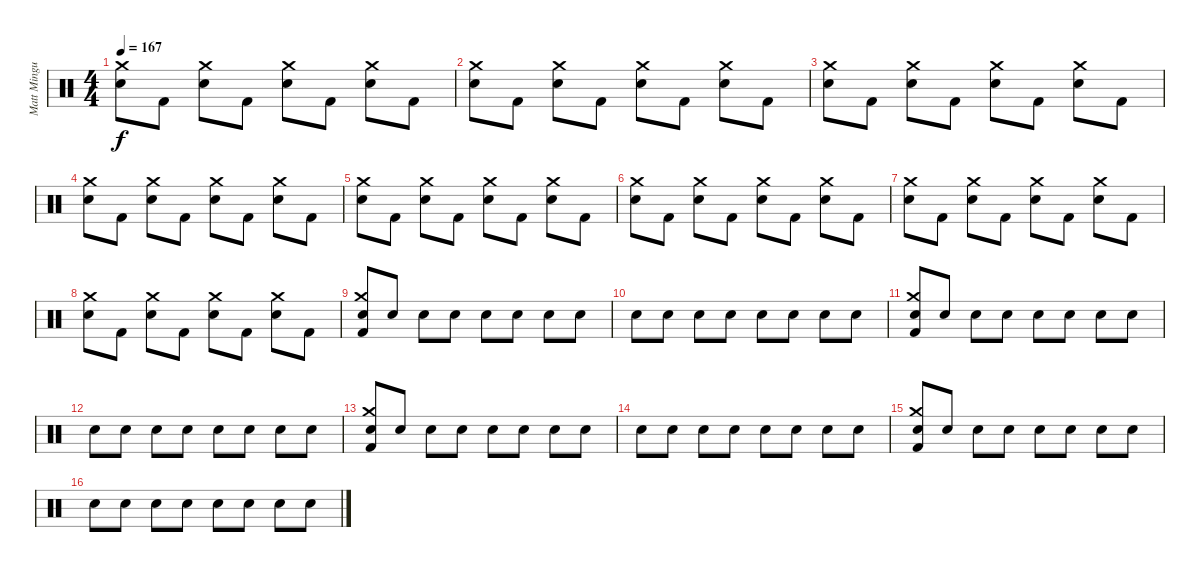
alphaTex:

\track ("Matt Mingus" "Matt Mingu") {instrument percussion}
\staff {score}
\articulation defaults
\ts (4 4)
\tempo 167
\clef neutral
\ks c
("Electric Snare (hit)" "Crash medium (hit)").8{dy f} "Kick (hit) 2".8 ("Electric Snare (hit)" "Crash medium (hit)").8 "Kick (hit) 2".8 ("Electric Snare (hit)" "Crash medium (hit)").8 "Kick (hit) 2".8 ("Electric Snare (hit)" "Crash medium (hit)").8 "Kick (hit) 2".8 |
("Electric Snare (hit)" "Crash medium (hit)").8 "Kick (hit) 2".8 ("Electric Snare (hit)" "Crash medium (hit)").8 "Kick (hit) 2".8 ("Electric Snare (hit)" "Crash medium (hit)").8 "Kick (hit) 2".8 ("Electric Snare (hit)" "Crash medium (hit)").8 "Kick (hit) 2".8 |
("Electric Snare (hit)" "Crash medium (hit)").8 "Kick (hit) 2".8 ("Electric Snare (hit)" "Crash medium (hit)").8 "Kick (hit) 2".8 ("Electric Snare (hit)" "Crash medium (hit)").8 "Kick (hit) 2".8 ("Electric Snare (hit)" "Crash medium (hit)").8 "Kick (hit) 2".8 |
("Electric Snare (hit)" "Crash medium (hit)").8 "Kick (hit) 2".8 ("Electric Snare (hit)" "Crash medium (hit)").8 "Kick (hit) 2".8 ("Electric Snare (hit)" "Crash medium (hit)").8 "Kick (hit) 2".8 ("Electric Snare (hit)" "Crash medium (hit)").8 "Kick (hit) 2".8 |
("Electric Snare (hit)" "Crash medium (hit)").8 "Kick (hit) 2".8 ("Electric Snare (hit)" "Crash medium (hit)").8 "Kick (hit) 2".8 ("Electric Snare (hit)" "Crash medium (hit)").8 "Kick (hit) 2".8 ("Electric Snare (hit)" "Crash medium (hit)").8 "Kick (hit) 2".8 |
("Electric Snare (hit)" "Crash medium (hit)").8 "Kick (hit) 2".8 ("Electric Snare (hit)" "Crash medium (hit)").8 "Kick (hit) 2".8 ("Electric Snare (hit)" "Crash medium (hit)").8 "Kick (hit) 2".8 ("Electric Snare (hit)" "Crash medium (hit)").8 "Kick (hit) 2".8 |
("Electric Snare (hit)" "Crash medium (hit)").8 "Kick (hit) 2".8 ("Electric Snare (hit)" "Crash medium (hit)").8 "Kick (hit) 2".8 ("Electric Snare (hit)" "Crash medium (hit)").8 "Kick (hit) 2".8 ("Electric Snare (hit)" "Crash medium (hit)").8 "Kick (hit) 2".8 |
("Electric Snare (hit)" "Crash medium (hit)").8 "Kick (hit) 2".8 ("Electric Snare (hit)" "Crash medium (hit)").8 "Kick (hit) 2".8 ("Electric Snare (hit)" "Crash medium (hit)").8 "Kick (hit) 2".8 ("Electric Snare (hit)" "Crash medium (hit)").8 "Kick (hit) 2".8 |
("Kick (hit) 2" "Electric Snare (hit)" "Crash medium (hit)").8 "Electric Snare (hit)".8 "Electric Snare (hit)".8 "Electric Snare (hit)".8 "Electric Snare (hit)".8 "Electric Snare (hit)".8 "Electric Snare (hit)".8 "Electric Snare (hit)".8 |
"Electric Snare (hit)".8 "Electric Snare (hit)".8 "Electric Snare (hit)".8 "Electric Snare (hit)".8 "Electric Snare (hit)".8 "Electric Snare (hit)".8 "Electric Snare (hit)".8 "Electric Snare (hit)".8 |
("Kick (hit) 2" "Electric Snare (hit)" "Crash medium (hit)").8 "Electric Snare (hit)".8 "Electric Snare (hit)".8 "Electric Snare (hit)".8 "Electric Snare (hit)".8 "Electric Snare (hit)".8 "Electric Snare (hit)".8 "Electric Snare (hit)".8 |
"Electric Snare (hit)".8 "Electric Snare (hit)".8 "Electric Snare (hit)".8 "Electric Snare (hit)".8 "Electric Snare (hit)".8 "Electric Snare (hit)".8 "Electric Snare (hit)".8 "Electric Snare (hit)".8 |
("Kick (hit) 2" "Electric Snare (hit)" "Crash medium (hit)").8 "Electric Snare (hit)".8 "Electric Snare (hit)".8 "Electric Snare (hit)".8 "Electric Snare (hit)".8 "Electric Snare (hit)".8 "Electric Snare (hit)".8 "Electric Snare (hit)".8 |
"Electric Snare (hit)".8 "Electric Snare (hit)".8 "Electric Snare (hit)".8 "Electric Snare (hit)".8 "Electric Snare (hit)".8 "Electric Snare (hit)".8 "Electric Snare (hit)".8 "Electric Snare (hit)".8 |
("Kick (hit) 2" "Electric Snare (hit)" "Crash medium (hit)").8 "Electric Snare (hit)".8 "Electric Snare (hit)".8 "Electric Snare (hit)".8 "Electric Snare (hit)".8 "Electric Snare (hit)".8 "Electric Snare (hit)".8 "Electric Snare (hit)".8 |
"Electric Snare (hit)".8 "Electric Snare (hit)".8 "Electric Snare (hit)".8 "Electric Snare (hit)".8 "Electric Snare (hit)".8 "Electric Snare (hit)".8 "Electric Snare (hit)".8 "Electric Snare (hit)".8
